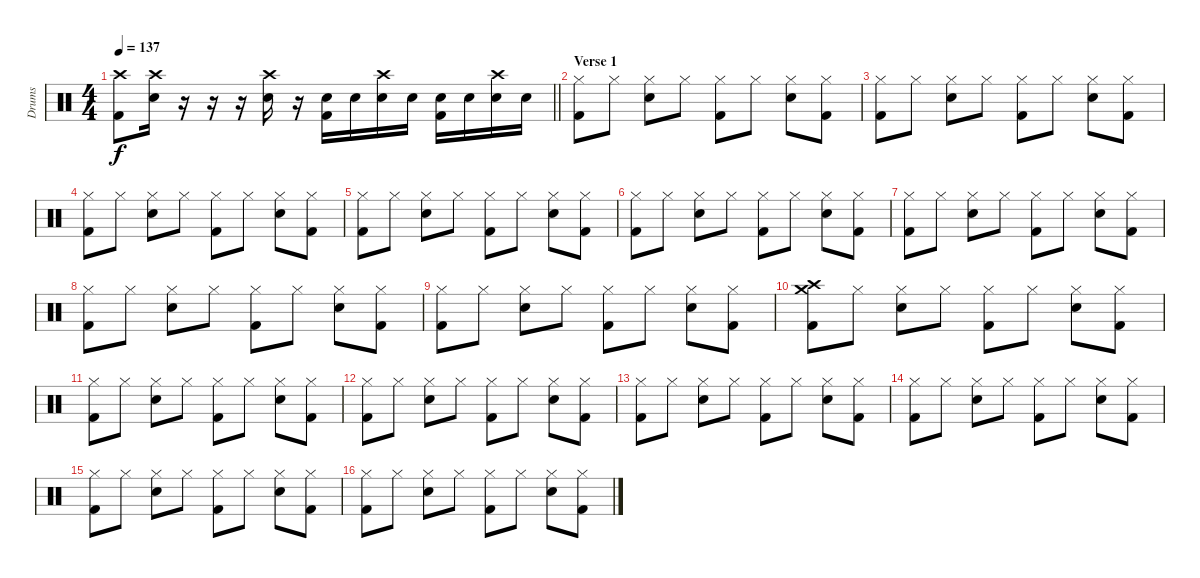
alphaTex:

\track ("Drums" "Drums") {instrument percussion}
\staff {score}
\articulation defaults
\ts (4 4)
\tempo 137
\clef neutral
\barLineRight lightlight
\ks c
("Crash high (hit)" "Kick (hit) 2").8{dy f} ("Crash high (hit)" "Electric Snare (hit)").16 r.16 r.16 r.16 ("Crash high (hit)" "Electric Snare (hit)").16 r.16 ("Electric Snare (hit)" "Kick (hit) 2").16 "Electric Snare (hit)".16 ("Crash high (hit)" "Electric Snare (hit)").16 "Electric Snare (hit)".16 ("Electric Snare (hit)" "Kick (hit) 2").16 "Electric Snare (hit)".16 ("Crash high (hit)" "Electric Snare (hit)").16 "Electric Snare (hit)".16 |
\section ("" "Verse 1")
("Hi-Hat (closed)" "Kick (hit) 2").8 "Hi-Hat (closed)".8 ("Hi-Hat (closed)" "Electric Snare (hit)").8 "Hi-Hat (closed)".8 ("Hi-Hat (closed)" "Kick (hit) 2").8 "Hi-Hat (closed)".8 ("Hi-Hat (closed)" "Electric Snare (hit)").8 ("Hi-Hat (closed)" "Kick (hit) 2").8 |
("Hi-Hat (closed)" "Kick (hit) 2").8 "Hi-Hat (closed)".8 ("Hi-Hat (closed)" "Electric Snare (hit)").8 "Hi-Hat (closed)".8 ("Hi-Hat (closed)" "Kick (hit) 2").8 "Hi-Hat (closed)".8 ("Hi-Hat (closed)" "Electric Snare (hit)").8 ("Hi-Hat (closed)" "Kick (hit) 2").8 |
("Hi-Hat (closed)" "Kick (hit) 2").8 "Hi-Hat (closed)".8 ("Hi-Hat (closed)" "Electric Snare (hit)").8 "Hi-Hat (closed)".8 ("Hi-Hat (closed)" "Kick (hit) 2").8 "Hi-Hat (closed)".8 ("Hi-Hat (closed)" "Electric Snare (hit)").8 ("Hi-Hat (closed)" "Kick (hit) 2").8 |
("Hi-Hat (closed)" "Kick (hit) 2").8 "Hi-Hat (closed)".8 ("Hi-Hat (closed)" "Electric Snare (hit)").8 "Hi-Hat (closed)".8 ("Hi-Hat (closed)" "Kick (hit) 2").8 "Hi-Hat (closed)".8 ("Hi-Hat (closed)" "Electric Snare (hit)").8 ("Hi-Hat (closed)" "Kick (hit) 2").8 |
("Hi-Hat (closed)" "Kick (hit) 2").8 "Hi-Hat (closed)".8 ("Hi-Hat (closed)" "Electric Snare (hit)").8 "Hi-Hat (closed)".8 ("Hi-Hat (closed)" "Kick (hit) 2").8 "Hi-Hat (closed)".8 ("Hi-Hat (closed)" "Electric Snare (hit)").8 ("Hi-Hat (closed)" "Kick (hit) 2").8 |
("Hi-Hat (closed)" "Kick (hit) 2").8 "Hi-Hat (closed)".8 ("Hi-Hat (closed)" "Electric Snare (hit)").8 "Hi-Hat (closed)".8 ("Hi-Hat (closed)" "Kick (hit) 2").8 "Hi-Hat (closed)".8 ("Hi-Hat (closed)" "Electric Snare (hit)").8 ("Hi-Hat (closed)" "Kick (hit) 2").8 |
("Hi-Hat (closed)" "Kick (hit) 2").8 "Hi-Hat (closed)".8 ("Hi-Hat (closed)" "Electric Snare (hit)").8 "Hi-Hat (closed)".8 ("Hi-Hat (closed)" "Kick (hit) 2").8 "Hi-Hat (closed)".8 ("Hi-Hat (closed)" "Electric Snare (hit)").8 ("Hi-Hat (closed)" "Kick (hit) 2").8 |
("Hi-Hat (closed)" "Kick (hit) 2").8 "Hi-Hat (closed)".8 ("Hi-Hat (closed)" "Electric Snare (hit)").8 "Hi-Hat (closed)".8 ("Hi-Hat (closed)" "Kick (hit) 2").8 "Hi-Hat (closed)".8 ("Hi-Hat (closed)" "Electric Snare (hit)").8 ("Hi-Hat (closed)" "Kick (hit) 2").8 |
("Crash high (hit)" "Kick (hit) 2" "Crash medium (hit)").8 "Hi-Hat (closed)".8 ("Hi-Hat (closed)" "Electric Snare (hit)").8 "Hi-Hat (closed)".8 ("Hi-Hat (closed)" "Kick (hit) 2").8 "Hi-Hat (closed)".8 ("Hi-Hat (closed)" "Electric Snare (hit)").8 ("Hi-Hat (closed)" "Kick (hit) 2").8 |
("Hi-Hat (closed)" "Kick (hit) 2").8 "Hi-Hat (closed)".8 ("Hi-Hat (closed)" "Electric Snare (hit)").8 "Hi-Hat (closed)".8 ("Hi-Hat (closed)" "Kick (hit) 2").8 "Hi-Hat (closed)".8 ("Hi-Hat (closed)" "Electric Snare (hit)").8 ("Hi-Hat (closed)" "Kick (hit) 2").8 |
("Hi-Hat (closed)" "Kick (hit) 2").8 "Hi-Hat (closed)".8 ("Hi-Hat (closed)" "Electric Snare (hit)").8 "Hi-Hat (closed)".8 ("Hi-Hat (closed)" "Kick (hit) 2").8 "Hi-Hat (closed)".8 ("Hi-Hat (closed)" "Electric Snare (hit)").8 ("Hi-Hat (closed)" "Kick (hit) 2").8 |
("Hi-Hat (closed)" "Kick (hit) 2").8 "Hi-Hat (closed)".8 ("Hi-Hat (closed)" "Electric Snare (hit)").8 "Hi-Hat (closed)".8 ("Hi-Hat (closed)" "Kick (hit) 2").8 "Hi-Hat (closed)".8 ("Hi-Hat (closed)" "Electric Snare (hit)").8 ("Hi-Hat (closed)" "Kick (hit) 2").8 |
("Hi-Hat (closed)" "Kick (hit) 2").8 "Hi-Hat (closed)".8 ("Hi-Hat (closed)" "Electric Snare (hit)").8 "Hi-Hat (closed)".8 ("Hi-Hat (closed)" "Kick (hit) 2").8 "Hi-Hat (closed)".8 ("Hi-Hat (closed)" "Electric Snare (hit)").8 ("Hi-Hat (closed)" "Kick (hit) 2").8 |
("Hi-Hat (closed)" "Kick (hit) 2").8 "Hi-Hat (closed)".8 ("Hi-Hat (closed)" "Electric Snare (hit)").8 "Hi-Hat (closed)".8 ("Hi-Hat (closed)" "Kick (hit) 2").8 "Hi-Hat (closed)".8 ("Hi-Hat (closed)" "Electric Snare (hit)").8 ("Hi-Hat (closed)" "Kick (hit) 2").8 |
("Hi-Hat (closed)" "Kick (hit) 2").8 "Hi-Hat (closed)".8 ("Hi-Hat (closed)" "Electric Snare (hit)").8 "Hi-Hat (closed)".8 ("Hi-Hat (closed)" "Kick (hit) 2").8 "Hi-Hat (closed)".8 ("Hi-Hat (closed)" "Electric Snare (hit)").8 ("Hi-Hat (closed)" "Kick (hit) 2").8
